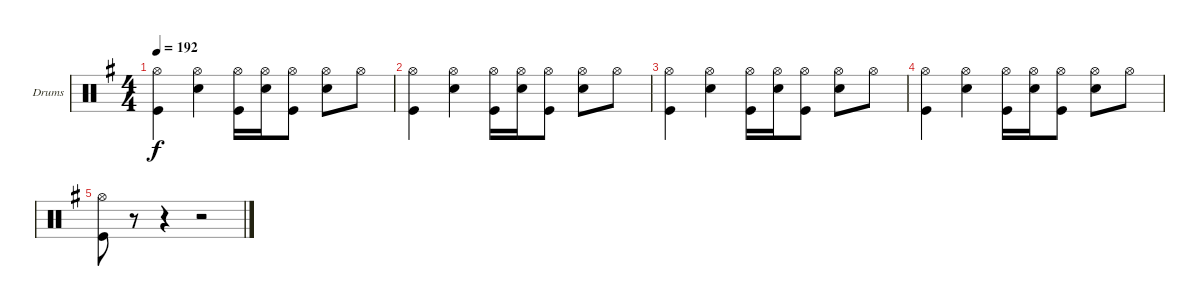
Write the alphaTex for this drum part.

\defaultSystemsLayout 4
\bracketExtendMode groupsimilarinstruments
\firstSystemTrackNameOrientation horizontal
\otherSystemsTrackNameOrientation horizontal
\track ("Drumkit" "Drums") {instrument percussion}
\staff {score}
\articulation defaults
\ts (4 4)
\tempo 192
\clef neutral
\scale
1.04288
\ks g
("Hi-Hat (open)" "Kick (hit)").4{dy f} ("Hi-Hat (open)" "Snare (hit) 2").4 ("Hi-Hat (open)" "Kick (hit)").16 ("Hi-Hat (open)" "Snare (hit) 2").16 ("Hi-Hat (open)" "Kick (hit)").8 ("Hi-Hat (open)" "Snare (hit) 2").8 "Hi-Hat (open)".8 |
\scale
0.957125 ("Hi-Hat (open)" "Kick (hit)").4 ("Hi-Hat (open)" "Snare (hit) 2").4 ("Hi-Hat (open)" "Kick (hit)").16 ("Hi-Hat (open)" "Snare (hit) 2").16 ("Hi-Hat (open)" "Kick (hit)").8 ("Hi-Hat (open)" "Snare (hit) 2").8 "Hi-Hat (open)".8 |
\scale
1.04288 ("Hi-Hat (open)" "Kick (hit)").4 ("Hi-Hat (open)" "Snare (hit) 2").4 ("Hi-Hat (open)" "Kick (hit)").16 ("Hi-Hat (open)" "Snare (hit) 2").16 ("Hi-Hat (open)" "Kick (hit)").8 ("Hi-Hat (open)" "Snare (hit) 2").8 "Hi-Hat (open)".8 |
\scale
0.957125 ("Hi-Hat (open)" "Kick (hit)").4 ("Hi-Hat (open)" "Snare (hit) 2").4 ("Hi-Hat (open)" "Kick (hit)").16 ("Hi-Hat (open)" "Snare (hit) 2").16 ("Hi-Hat (open)" "Kick (hit)").8 ("Hi-Hat (open)" "Snare (hit) 2").8 "Hi-Hat (open)".8 |
("Hi-Hat (open)" "Kick (hit)").8 r.8 r.4 r.2
